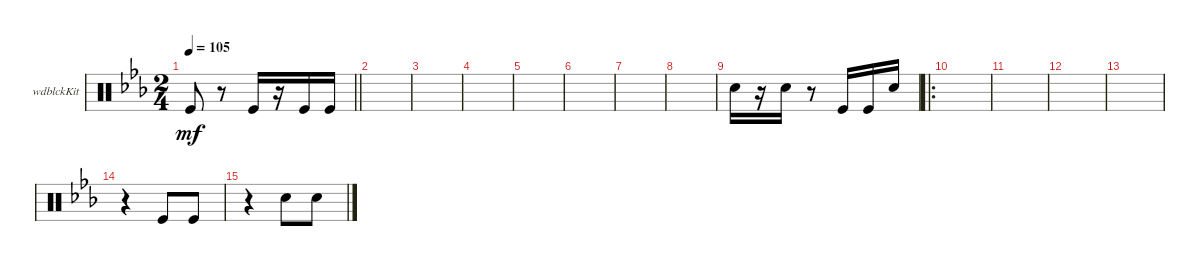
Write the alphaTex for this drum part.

\defaultSystemsLayout 4
\bracketExtendMode groupsimilarinstruments
\firstSystemTrackNameOrientation horizontal
\otherSystemsTrackNameOrientation horizontal
\track ("Woodblock" "wdblckKit") {instrument percussion}
\staff {score}
\articulation defaults
\ts (2 4)
\tempo 105
\clef neutral
\scale
0.525424
\barLineRight lightlight
\ks cminor "Kick (hit)".8{dy mf}
r.8 "Kick (hit)".16 r.16 "Kick (hit)".16 "Kick (hit)".16 |
\scale
0.237288 |
\scale
0.237288 |
\scale
0.333333 |
\scale
0.333333 |
\scale
0.333333 |
\scale
0.333333 |
\scale
0.333333 |
\scale
0.333333 "Snare (hit) 2".16 r.16 "Snare (hit) 2".16 r.8 "Kick (hit)".16 "Kick (hit)".16 "Snare (hit) 2".16 |
\ro
\scale
0.377778 |
\scale
0.311111 |
\scale
0.311111 |
\scale
0.333333 |
\scale
0.333333 r.4 "Kick (hit)".8 "Kick (hit)".8 |
\scale
0.333333 r.4 "Snare (hit) 2".8 "Snare (hit) 2".8
